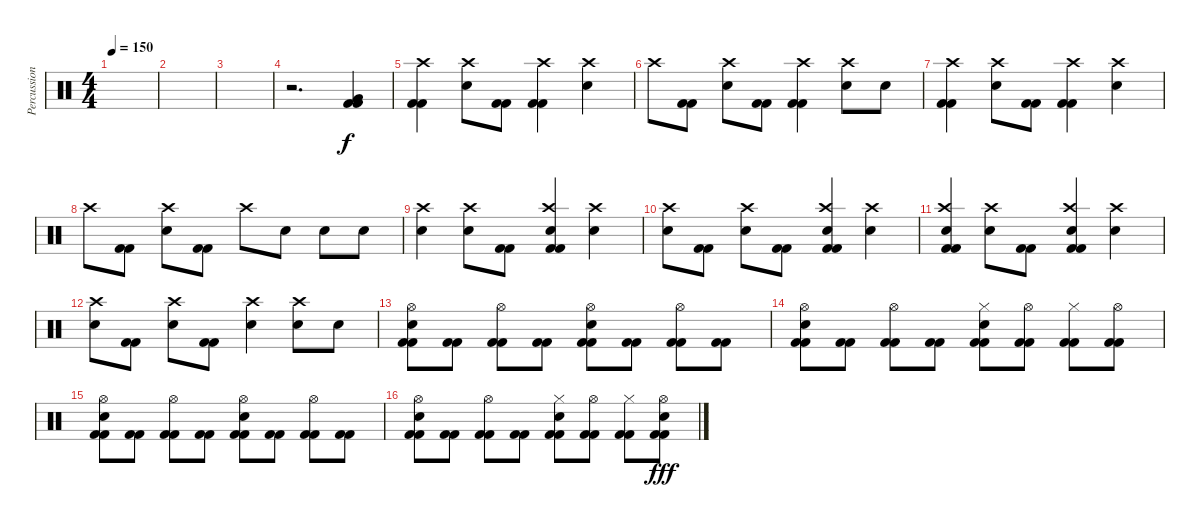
\track ("Percussions" "Percussion") {instrument percussion}
\staff {score}
\articulation defaults
\ts (4 4)
\tempo 150
\clef neutral
\ks c
|
|
|
r.2{d} ("Kick (hit) 2" "Kick (hit) 2" "Very Low Tom (hit)").4 |
("Kick (hit) 2" "Kick (hit) 2" "Crash high (hit)").4{dy f} ("Electric Snare (hit)" "Crash high (hit)").8 ("Kick (hit) 2" "Kick (hit) 2").8 ("Kick (hit) 2" "Kick (hit) 2" "Crash high (hit)").4 ("Electric Snare (hit)" "Crash high (hit)").4 |
"Crash high (hit)".8 ("Kick (hit) 2" "Kick (hit) 2").8 ("Electric Snare (hit)" "Crash high (hit)").8 ("Kick (hit) 2" "Kick (hit) 2").8 ("Kick (hit) 2" "Kick (hit) 2" "Crash high (hit)").4 ("Electric Snare (hit)" "Crash high (hit)").8 "Electric Snare (hit)".8 |
("Kick (hit) 2" "Kick (hit) 2" "Crash high (hit)").4 ("Electric Snare (hit)" "Crash high (hit)").8 ("Kick (hit) 2" "Kick (hit) 2").8 ("Kick (hit) 2" "Kick (hit) 2" "Crash high (hit)").4 ("Electric Snare (hit)" "Crash high (hit)").4 |
"Crash high (hit)".8 ("Kick (hit) 2" "Kick (hit) 2").8 ("Electric Snare (hit)" "Crash high (hit)").8 ("Kick (hit) 2" "Kick (hit) 2").8 "Crash high (hit)".8 "Electric Snare (hit)".8 "Electric Snare (hit)".8 "Electric Snare (hit)".8 |
("Electric Snare (hit)" "Crash high (hit)").4 ("Electric Snare (hit)" "Crash high (hit)").8 ("Kick (hit) 2" "Kick (hit) 2").8 ("Kick (hit) 2" "Kick (hit) 2" "Electric Snare (hit)" "Crash high (hit)").4 ("Electric Snare (hit)" "Crash high (hit)").4 |
("Electric Snare (hit)" "Crash high (hit)").8 ("Kick (hit) 2" "Kick (hit) 2").8 ("Electric Snare (hit)" "Crash high (hit)").8 ("Kick (hit) 2" "Kick (hit) 2").8 ("Kick (hit) 2" "Kick (hit) 2" "Electric Snare (hit)" "Crash high (hit)").4 ("Electric Snare (hit)" "Crash high (hit)").4 |
("Kick (hit) 2" "Kick (hit) 2" "Electric Snare (hit)" "Crash high (hit)").4 ("Electric Snare (hit)" "Crash high (hit)").8 ("Kick (hit) 2" "Kick (hit) 2").8 ("Kick (hit) 2" "Kick (hit) 2" "Electric Snare (hit)" "Crash high (hit)").4 ("Electric Snare (hit)" "Crash high (hit)").4 |
("Electric Snare (hit)" "Crash high (hit)").8 ("Kick (hit) 2" "Kick (hit) 2").8 ("Electric Snare (hit)" "Crash high (hit)").8 ("Kick (hit) 2" "Kick (hit) 2").8 ("Electric Snare (hit)" "Crash high (hit)").4 ("Electric Snare (hit)" "Crash high (hit)").8 "Electric Snare (hit)".8 |
("Kick (hit) 2" "Kick (hit) 2" "Electric Snare (hit)" "Hi-Hat (open)").8 ("Kick (hit) 2" "Kick (hit) 2").8 ("Kick (hit) 2" "Kick (hit) 2" "Hi-Hat (open)").8 ("Kick (hit) 2" "Kick (hit) 2").8 ("Kick (hit) 2" "Kick (hit) 2" "Electric Snare (hit)" "Hi-Hat (open)").8 ("Kick (hit) 2" "Kick (hit) 2").8 ("Kick (hit) 2" "Kick (hit) 2" "Hi-Hat (open)").8 ("Kick (hit) 2" "Kick (hit) 2").8 |
("Kick (hit) 2" "Kick (hit) 2" "Electric Snare (hit)" "Hi-Hat (open)").8 ("Kick (hit) 2" "Kick (hit) 2").8 ("Kick (hit) 2" "Kick (hit) 2" "Hi-Hat (open)").8 ("Kick (hit) 2" "Kick (hit) 2").8 ("Kick (hit) 2" "Kick (hit) 2" "Electric Snare (hit)" "Hi-Hat (closed)").8 ("Kick (hit) 2" "Kick (hit) 2" "Hi-Hat (open)").8 ("Kick (hit) 2" "Kick (hit) 2" "Hi-Hat (closed)").8 ("Kick (hit) 2" "Kick (hit) 2" "Hi-Hat (open)").8 |
("Kick (hit) 2" "Kick (hit) 2" "Electric Snare (hit)" "Hi-Hat (open)").8 ("Kick (hit) 2" "Kick (hit) 2").8 ("Kick (hit) 2" "Kick (hit) 2" "Hi-Hat (open)").8 ("Kick (hit) 2" "Kick (hit) 2").8 ("Kick (hit) 2" "Kick (hit) 2" "Electric Snare (hit)" "Hi-Hat (open)").8 ("Kick (hit) 2" "Kick (hit) 2").8 ("Kick (hit) 2" "Kick (hit) 2" "Hi-Hat (open)").8 ("Kick (hit) 2" "Kick (hit) 2").8 |
("Kick (hit) 2" "Kick (hit) 2" "Electric Snare (hit)" "Hi-Hat (open)").8 ("Kick (hit) 2" "Kick (hit) 2").8 ("Kick (hit) 2" "Kick (hit) 2" "Hi-Hat (open)").8 ("Kick (hit) 2" "Kick (hit) 2").8 ("Kick (hit) 2" "Kick (hit) 2" "Electric Snare (hit)" "Hi-Hat (closed)").8 ("Kick (hit) 2" "Kick (hit) 2" "Hi-Hat (open)").8 ("Kick (hit) 2" "Kick (hit) 2" "Hi-Hat (closed)").8 ("Kick (hit) 2" "Kick (hit) 2" "Electric Snare (hit)" "Hi-Hat (open)").8{dy fff}
